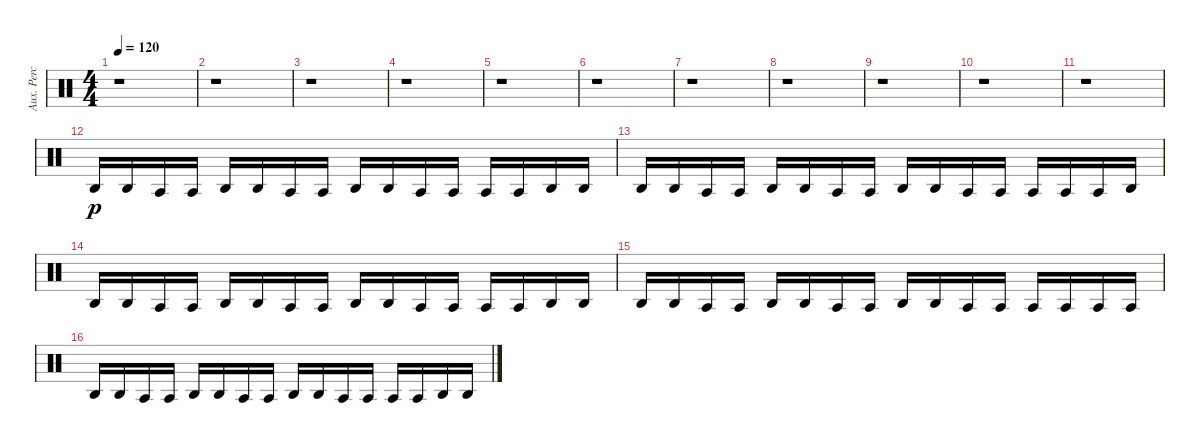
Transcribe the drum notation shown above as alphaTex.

\track ("Aux. Perc" "Aux. Perc") {instrument percussion}
\staff {score}
\articulation defaults
\ts (4 4)
\tempo 120
\clef neutral
\ks c
r.1{dy p} |
r.1 |
r.1 |
r.1 |
r.1 |
r.1 |
r.1 |
r.1 |
r.1 |
r.1 |
r.1 |
"Agogo high (hit)".16 "Agogo high (hit)".16 "Agogo tow (hit)".16 "Agogo tow (hit)".16 "Agogo high (hit)".16 "Agogo high (hit)".16 "Agogo tow (hit)".16 "Agogo tow (hit)".16 "Agogo high (hit)".16 "Agogo high (hit)".16 "Agogo tow (hit)".16 "Agogo tow (hit)".16 "Agogo tow (hit)".16 "Agogo tow (hit)".16 "Agogo high (hit)".16 "Agogo high (hit)".16 |
"Agogo high (hit)".16 "Agogo high (hit)".16 "Agogo tow (hit)".16 "Agogo tow (hit)".16 "Agogo high (hit)".16 "Agogo high (hit)".16 "Agogo tow (hit)".16 "Agogo tow (hit)".16 "Agogo high (hit)".16 "Agogo high (hit)".16 "Agogo tow (hit)".16 "Agogo tow (hit)".16 "Agogo tow (hit)".16 "Agogo tow (hit)".16 "Agogo tow (hit)".16 "Agogo high (hit)".16 |
"Agogo high (hit)".16 "Agogo high (hit)".16 "Agogo tow (hit)".16 "Agogo tow (hit)".16 "Agogo high (hit)".16 "Agogo high (hit)".16 "Agogo tow (hit)".16 "Agogo tow (hit)".16 "Agogo high (hit)".16 "Agogo high (hit)".16 "Agogo tow (hit)".16 "Agogo tow (hit)".16 "Agogo tow (hit)".16 "Agogo tow (hit)".16 "Agogo high (hit)".16 "Agogo high (hit)".16 |
"Agogo high (hit)".16 "Agogo high (hit)".16 "Agogo tow (hit)".16 "Agogo tow (hit)".16 "Agogo high (hit)".16 "Agogo high (hit)".16 "Agogo tow (hit)".16 "Agogo tow (hit)".16 "Agogo high (hit)".16 "Agogo high (hit)".16 "Agogo tow (hit)".16 "Agogo tow (hit)".16 "Agogo tow (hit)".16 "Agogo tow (hit)".16 "Agogo tow (hit)".16 "Agogo tow (hit)".16 |
"Agogo high (hit)".16 "Agogo high (hit)".16 "Agogo tow (hit)".16 "Agogo tow (hit)".16 "Agogo high (hit)".16 "Agogo high (hit)".16 "Agogo tow (hit)".16 "Agogo tow (hit)".16 "Agogo high (hit)".16 "Agogo high (hit)".16 "Agogo tow (hit)".16 "Agogo tow (hit)".16 "Agogo tow (hit)".16 "Agogo tow (hit)".16 "Agogo high (hit)".16 "Agogo high (hit)".16
